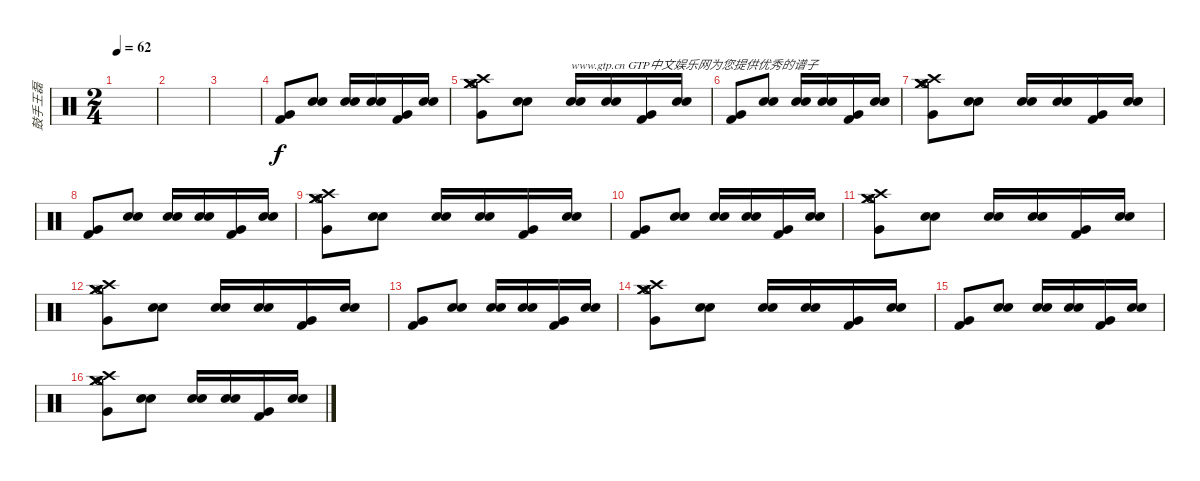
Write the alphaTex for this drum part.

\track ("鼓手王磊" "鼓手王磊") {instrument percussion}
\staff {score}
\articulation defaults
\ts (2 4)
\tempo 62
\clef neutral
\ks c
|
|
|
("Very Low Tom (hit)" "Kick (hit) 2").8 ("Electric Snare (hit)" "Electric Snare (hit)").8 ("Electric Snare (hit)" "Electric Snare (hit)").16 ("Electric Snare (hit)" "Electric Snare (hit)").16 ("Very Low Tom (hit)" "Kick (hit) 2").16 ("Electric Snare (hit)" "Electric Snare (hit)").16 |
("Crash medium (hit)" "Crash medium (hit)" "Very Low Tom (hit)" "Crash high (hit)" "Hi-Hat (open)" "Hi-Hat (open)").8 ("Electric Snare (hit)" "Electric Snare (hit)").8 ("Electric Snare (hit)" "Electric Snare (hit)").16{txt "www.gtp.cn GTP中文娱乐网为您提供优秀的谱子"} ("Electric Snare (hit)" "Electric Snare (hit)").16 ("Very Low Tom (hit)" "Kick (hit) 2").16 ("Electric Snare (hit)" "Electric Snare (hit)").16 |
("Very Low Tom (hit)" "Kick (hit) 2").8 ("Electric Snare (hit)" "Electric Snare (hit)").8 ("Electric Snare (hit)" "Electric Snare (hit)").16 ("Electric Snare (hit)" "Electric Snare (hit)").16 ("Very Low Tom (hit)" "Kick (hit) 2").16 ("Electric Snare (hit)" "Electric Snare (hit)").16 |
("Crash medium (hit)" "Crash medium (hit)" "Very Low Tom (hit)" "Crash high (hit)" "Hi-Hat (open)" "Hi-Hat (open)").8 ("Electric Snare (hit)" "Electric Snare (hit)").8 ("Electric Snare (hit)" "Electric Snare (hit)").16 ("Electric Snare (hit)" "Electric Snare (hit)").16 ("Very Low Tom (hit)" "Kick (hit) 2").16 ("Electric Snare (hit)" "Electric Snare (hit)").16 |
("Very Low Tom (hit)" "Kick (hit) 2").8 ("Electric Snare (hit)" "Electric Snare (hit)").8 ("Electric Snare (hit)" "Electric Snare (hit)").16 ("Electric Snare (hit)" "Electric Snare (hit)").16 ("Very Low Tom (hit)" "Kick (hit) 2").16 ("Electric Snare (hit)" "Electric Snare (hit)").16 |
("Crash medium (hit)" "Crash medium (hit)" "Very Low Tom (hit)" "Crash high (hit)" "Hi-Hat (open)" "Hi-Hat (open)").8 ("Electric Snare (hit)" "Electric Snare (hit)").8 ("Electric Snare (hit)" "Electric Snare (hit)").16 ("Electric Snare (hit)" "Electric Snare (hit)").16 ("Very Low Tom (hit)" "Kick (hit) 2").16 ("Electric Snare (hit)" "Electric Snare (hit)").16 |
("Very Low Tom (hit)" "Kick (hit) 2").8 ("Electric Snare (hit)" "Electric Snare (hit)").8 ("Electric Snare (hit)" "Electric Snare (hit)").16 ("Electric Snare (hit)" "Electric Snare (hit)").16 ("Very Low Tom (hit)" "Kick (hit) 2").16 ("Electric Snare (hit)" "Electric Snare (hit)").16 |
("Crash medium (hit)" "Crash medium (hit)" "Very Low Tom (hit)" "Crash high (hit)" "Hi-Hat (open)" "Hi-Hat (open)").8 ("Electric Snare (hit)" "Electric Snare (hit)").8 ("Electric Snare (hit)" "Electric Snare (hit)").16 ("Electric Snare (hit)" "Electric Snare (hit)").16 ("Very Low Tom (hit)" "Kick (hit) 2").16 ("Electric Snare (hit)" "Electric Snare (hit)").16 |
("Crash medium (hit)" "Crash medium (hit)" "Very Low Tom (hit)" "Crash high (hit)" "Hi-Hat (open)" "Hi-Hat (open)").8 ("Electric Snare (hit)" "Electric Snare (hit)").8 ("Electric Snare (hit)" "Electric Snare (hit)").16 ("Electric Snare (hit)" "Electric Snare (hit)").16 ("Very Low Tom (hit)" "Kick (hit) 2").16 ("Electric Snare (hit)" "Electric Snare (hit)").16 |
("Very Low Tom (hit)" "Kick (hit) 2").8 ("Electric Snare (hit)" "Electric Snare (hit)").8 ("Electric Snare (hit)" "Electric Snare (hit)").16 ("Electric Snare (hit)" "Electric Snare (hit)").16 ("Very Low Tom (hit)" "Kick (hit) 2").16 ("Electric Snare (hit)" "Electric Snare (hit)").16 |
("Crash medium (hit)" "Crash medium (hit)" "Very Low Tom (hit)" "Crash high (hit)" "Hi-Hat (open)" "Hi-Hat (open)").8 ("Electric Snare (hit)" "Electric Snare (hit)").8 ("Electric Snare (hit)" "Electric Snare (hit)").16 ("Electric Snare (hit)" "Electric Snare (hit)").16 ("Very Low Tom (hit)" "Kick (hit) 2").16 ("Electric Snare (hit)" "Electric Snare (hit)").16 |
("Very Low Tom (hit)" "Kick (hit) 2").8 ("Electric Snare (hit)" "Electric Snare (hit)").8 ("Electric Snare (hit)" "Electric Snare (hit)").16 ("Electric Snare (hit)" "Electric Snare (hit)").16 ("Very Low Tom (hit)" "Kick (hit) 2").16 ("Electric Snare (hit)" "Electric Snare (hit)").16 |
("Crash medium (hit)" "Crash medium (hit)" "Very Low Tom (hit)" "Crash high (hit)" "Hi-Hat (open)" "Hi-Hat (open)").8 ("Electric Snare (hit)" "Electric Snare (hit)").8 ("Electric Snare (hit)" "Electric Snare (hit)").16 ("Electric Snare (hit)" "Electric Snare (hit)").16 ("Very Low Tom (hit)" "Kick (hit) 2").16 ("Electric Snare (hit)" "Electric Snare (hit)").16
